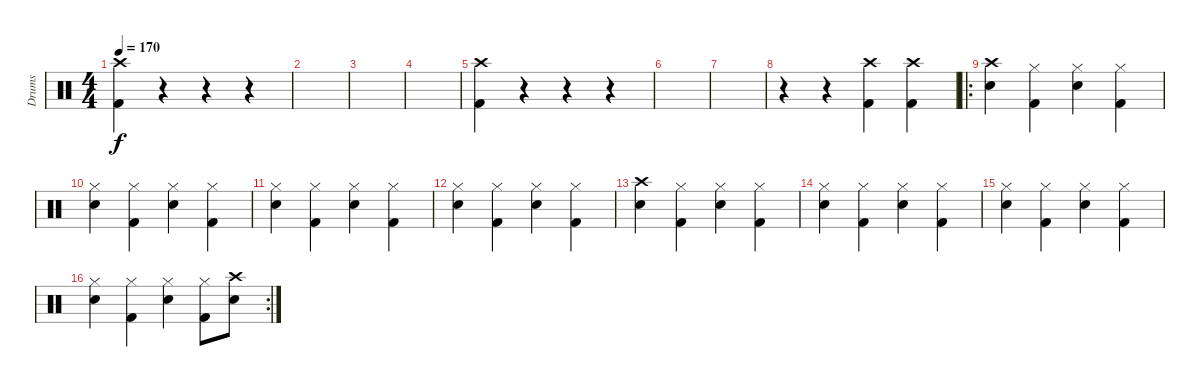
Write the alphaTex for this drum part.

\track ("Drums" "Drums") {instrument percussion}
\staff {score}
\articulation defaults
\ts (4 4)
\tempo 170
\clef neutral
\ks c
("Crash high (hit)" "Kick (hit) 2").4{dy f} r.4 r.4 r.4 |
|
|
|
("Crash high (hit)" "Kick (hit) 2").4 r.4 r.4 r.4 |
|
|
r.4 r.4 ("Crash high (hit)" "Kick (hit) 2").4 ("Crash high (hit)" "Kick (hit) 2").4 |
\ro
("Crash high (hit)" "Snare (hit) 2").4 ("Hi-Hat (closed)" "Kick (hit) 2").4 ("Hi-Hat (closed)" "Snare (hit) 2").4 ("Hi-Hat (closed)" "Kick (hit) 2").4 |
("Hi-Hat (closed)" "Snare (hit) 2").4 ("Hi-Hat (closed)" "Kick (hit) 2").4 ("Hi-Hat (closed)" "Snare (hit) 2").4 ("Hi-Hat (closed)" "Kick (hit) 2").4 |
("Hi-Hat (closed)" "Snare (hit) 2").4 ("Hi-Hat (closed)" "Kick (hit) 2").4 ("Hi-Hat (closed)" "Snare (hit) 2").4 ("Hi-Hat (closed)" "Kick (hit) 2").4 |
("Hi-Hat (closed)" "Snare (hit) 2").4 ("Hi-Hat (closed)" "Kick (hit) 2").4 ("Hi-Hat (closed)" "Snare (hit) 2").4 ("Hi-Hat (closed)" "Kick (hit) 2").4 |
("Crash high (hit)" "Snare (hit) 2").4 ("Hi-Hat (closed)" "Kick (hit) 2").4 ("Hi-Hat (closed)" "Snare (hit) 2").4 ("Hi-Hat (closed)" "Kick (hit) 2").4 |
("Hi-Hat (closed)" "Snare (hit) 2").4 ("Hi-Hat (closed)" "Kick (hit) 2").4 ("Hi-Hat (closed)" "Snare (hit) 2").4 ("Hi-Hat (closed)" "Kick (hit) 2").4 |
("Hi-Hat (closed)" "Snare (hit) 2").4 ("Hi-Hat (closed)" "Kick (hit) 2").4 ("Hi-Hat (closed)" "Snare (hit) 2").4 ("Hi-Hat (closed)" "Kick (hit) 2").4 |
\rc 2
("Hi-Hat (closed)" "Snare (hit) 2").4 ("Hi-Hat (closed)" "Kick (hit) 2").4 ("Hi-Hat (closed)" "Snare (hit) 2").4 ("Hi-Hat (closed)" "Kick (hit) 2").8 ("Crash high (hit)" "Snare (hit) 2").8
